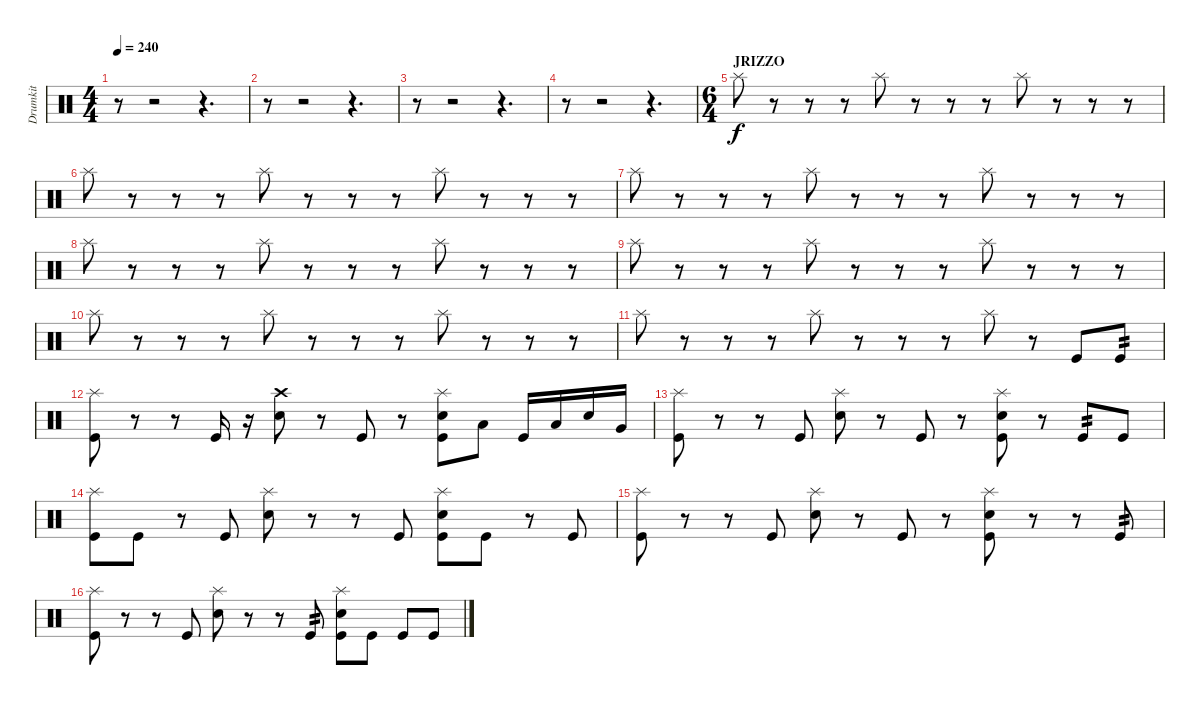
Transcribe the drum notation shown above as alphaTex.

\track ("Drumkit" "Drumkit") {instrument percussion}
\staff {score}
\articulation defaults
\ts (4 4)
\tempo 240
\clef neutral
\ks c
r.8{dy f} r.2 r.4{d} |
r.8 r.2 r.4{d} |
r.8 r.2 r.4{d} |
r.8 r.2 r.4{d} |
\ts (6 4)
\section ("" "JRIZZO")
"Splash (hit)".8 r.8 r.8 r.8 "Splash (hit)".8 r.8 r.8 r.8 "Splash (hit)".8 r.8 r.8 r.8 |
"Splash (hit)".8 r.8 r.8 r.8 "Splash (hit)".8 r.8 r.8 r.8 "Splash (hit)".8 r.8 r.8 r.8 |
"Splash (hit)".8 r.8 r.8 r.8 "Splash (hit)".8 r.8 r.8 r.8 "Splash (hit)".8 r.8 r.8 r.8 |
"Splash (hit)".8 r.8 r.8 r.8 "Splash (hit)".8 r.8 r.8 r.8 "Splash (hit)".8 r.8 r.8 r.8 |
"Splash (hit)".8 r.8 r.8 r.8 "Splash (hit)".8 r.8 r.8 r.8 "Splash (hit)".8 r.8 r.8 r.8 |
"Splash (hit)".8 r.8 r.8 r.8 "Splash (hit)".8 r.8 r.8 r.8 "Splash (hit)".8 r.8 r.8 r.8 |
"Splash (hit)".8 r.8 r.8 r.8 "Splash (hit)".8 r.8 r.8 r.8 "Splash (hit)".8 r.8 "Kick (hit)".8 "Kick (hit)".8{tp 2} |
("Kick (hit)" "Splash (hit)").8 r.8 r.8 "Kick (hit)".16 r.16 ("Crash high (hit)" "Snare (hit) 2").8 r.8 "Kick (hit)".8 r.8 ("Kick (hit)" "Snare (hit) 2" "Splash (hit)").8 "Low Tom (hit)".8 "Kick (hit)".16 "Low Tom (hit)".16 "Snare (hit) 2".16 "Very Low Tom (hit)".16 |
("Kick (hit)" "Splash (hit)").8 r.8 r.8 "Kick (hit)".8 ("Snare (hit) 2" "Splash (hit)").8 r.8 "Kick (hit)".8 r.8 ("Kick (hit)" "Snare (hit) 2" "Splash (hit)").8 r.8 "Kick (hit)".8{tp 2} "Kick (hit)".8 |
("Kick (hit)" "Splash (hit)").8 "Kick (hit)".8 r.8 "Kick (hit)".8 ("Snare (hit) 2" "Splash (hit)").8 r.8 r.8 "Kick (hit)".8 ("Kick (hit)" "Snare (hit) 2" "Splash (hit)").8 "Kick (hit)".8 r.8 "Kick (hit)".8 |
("Kick (hit)" "Splash (hit)").8 r.8 r.8 "Kick (hit)".8 ("Snare (hit) 2" "Splash (hit)").8 r.8 "Kick (hit)".8 r.8 ("Kick (hit)" "Snare (hit) 2" "Splash (hit)").8 r.8 r.8 "Kick (hit)".8{tp 2} |
("Kick (hit)" "Splash (hit)").8 r.8 r.8 "Kick (hit)".8 ("Snare (hit) 2" "Splash (hit)").8 r.8 r.8 "Kick (hit)".8{tp 2} ("Kick (hit)" "Snare (hit) 2" "Splash (hit)").8 "Kick (hit)".8 "Kick (hit)".8 "Kick (hit)".8
